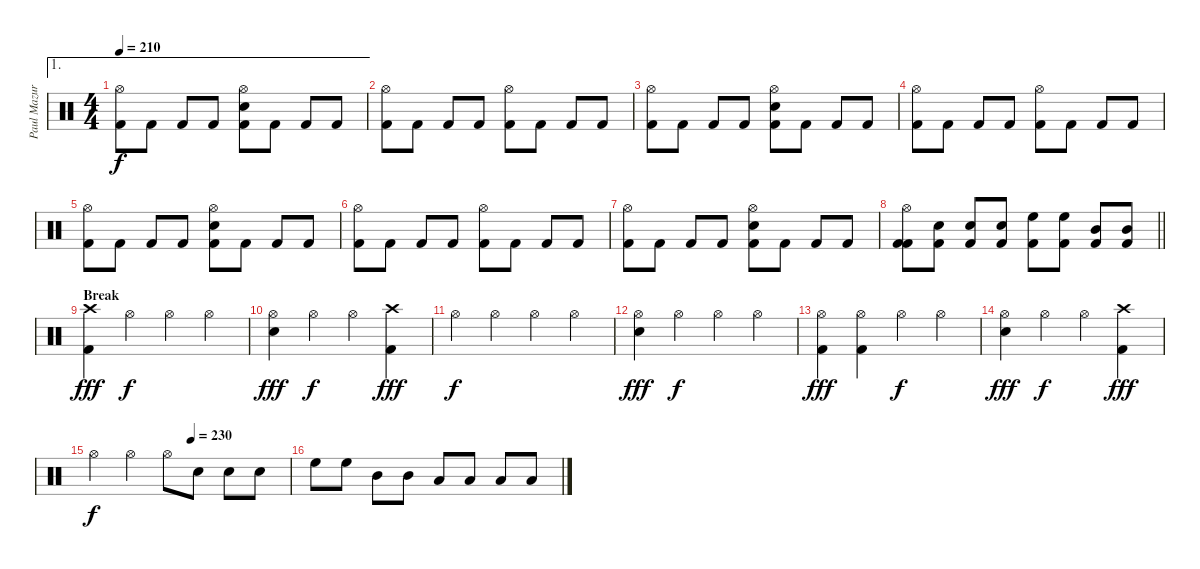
\track ("Paul Mazurkiewicz" "Paul Mazur") {instrument percussion}
\staff {score}
\articulation defaults
\ae 1
\ts (4 4)
\tempo 210
\clef neutral
\ks c
("Hi-Hat (open)" "Kick (hit) 2").8{dy f} "Kick (hit) 2".8 "Kick (hit) 2".8 "Kick (hit) 2".8 ("Hi-Hat (open)" "Snare (hit) 2" "Kick (hit) 2").8 "Kick (hit) 2".8 "Kick (hit) 2".8 "Kick (hit) 2".8 |
("Hi-Hat (open)" "Kick (hit) 2").8 "Kick (hit) 2".8 "Kick (hit) 2".8 "Kick (hit) 2".8 ("Hi-Hat (open)" "Kick (hit) 2").8 "Kick (hit) 2".8 "Kick (hit) 2".8 "Kick (hit) 2".8 |
("Hi-Hat (open)" "Kick (hit) 2").8 "Kick (hit) 2".8 "Kick (hit) 2".8 "Kick (hit) 2".8 ("Hi-Hat (open)" "Snare (hit) 2" "Kick (hit) 2").8 "Kick (hit) 2".8 "Kick (hit) 2".8 "Kick (hit) 2".8 |
("Hi-Hat (open)" "Kick (hit) 2").8 "Kick (hit) 2".8 "Kick (hit) 2".8 "Kick (hit) 2".8 ("Hi-Hat (open)" "Kick (hit) 2").8 "Kick (hit) 2".8 "Kick (hit) 2".8 "Kick (hit) 2".8 |
("Hi-Hat (open)" "Kick (hit) 2").8 "Kick (hit) 2".8 "Kick (hit) 2".8 "Kick (hit) 2".8 ("Hi-Hat (open)" "Snare (hit) 2" "Kick (hit) 2").8 "Kick (hit) 2".8 "Kick (hit) 2".8 "Kick (hit) 2".8 |
("Hi-Hat (open)" "Kick (hit) 2").8 "Kick (hit) 2".8 "Kick (hit) 2".8 "Kick (hit) 2".8 ("Hi-Hat (open)" "Kick (hit) 2").8 "Kick (hit) 2".8 "Kick (hit) 2".8 "Kick (hit) 2".8 |
("Hi-Hat (open)" "Kick (hit) 2").8 "Kick (hit) 2".8 "Kick (hit) 2".8 "Kick (hit) 2".8 ("Hi-Hat (open)" "Snare (hit) 2" "Kick (hit) 2").8 "Kick (hit) 2".8 "Kick (hit) 2".8 "Kick (hit) 2".8 |
\barLineRight lightlight
("Hi-Hat (open)" "Kick (hit) 2" "Kick (hit) 2").8 ("Snare (hit) 2" "Kick (hit) 2").8 ("Snare (hit) 2" "Kick (hit) 2").8 ("Snare (hit) 2" "Kick (hit) 2").8 ("High Floor Tom (hit)" "Kick (hit) 2").8 ("High Floor Tom (hit)" "Kick (hit) 2").8 ("Mid Tom (hit)" "Kick (hit) 2").8 ("Mid Tom (hit)" "Kick (hit) 2").8 |
\section ("" "Break")
("Crash high (hit)" "Kick (hit) 2").4{dy fff} "Hi-Hat (open)".4{dy f} "Hi-Hat (open)".4 "Hi-Hat (open)".4 |
("Hi-Hat (open)" "Electric Snare (hit)").4{dy fff} "Hi-Hat (open)".4{dy f} "Hi-Hat (open)".4 ("Crash high (hit)" "Kick (hit) 2").4{dy fff} |
"Hi-Hat (open)".4{dy f} "Hi-Hat (open)".4 "Hi-Hat (open)".4 "Hi-Hat (open)".4 |
("Hi-Hat (open)" "Electric Snare (hit)").4{dy fff} "Hi-Hat (open)".4{dy f} "Hi-Hat (open)".4 "Hi-Hat (open)".4 |
("Hi-Hat (open)" "Kick (hit) 2").4{dy fff} ("Hi-Hat (open)" "Kick (hit) 2").4 "Hi-Hat (open)".4{dy f} "Hi-Hat (open)".4 |
("Hi-Hat (open)" "Electric Snare (hit)").4{dy fff} "Hi-Hat (open)".4{dy f} "Hi-Hat (open)".4 ("Crash high (hit)" "Kick (hit) 2").4{dy fff} |
\tempo (230 0.5)
"Hi-Hat (open)".4{dy f} "Hi-Hat (open)".4 "Hi-Hat (open)".8 "Snare (hit) 2".8 "Snare (hit) 2".8 "Snare (hit) 2".8 |
"High Floor Tom (hit)".8 "High Floor Tom (hit)".8 "Mid Tom (hit)".8 "Mid Tom (hit)".8 "Low Tom (hit)".8 "Low Tom (hit)".8 "Low Floor Tom (hit)".8 "Low Floor Tom (hit)".8
